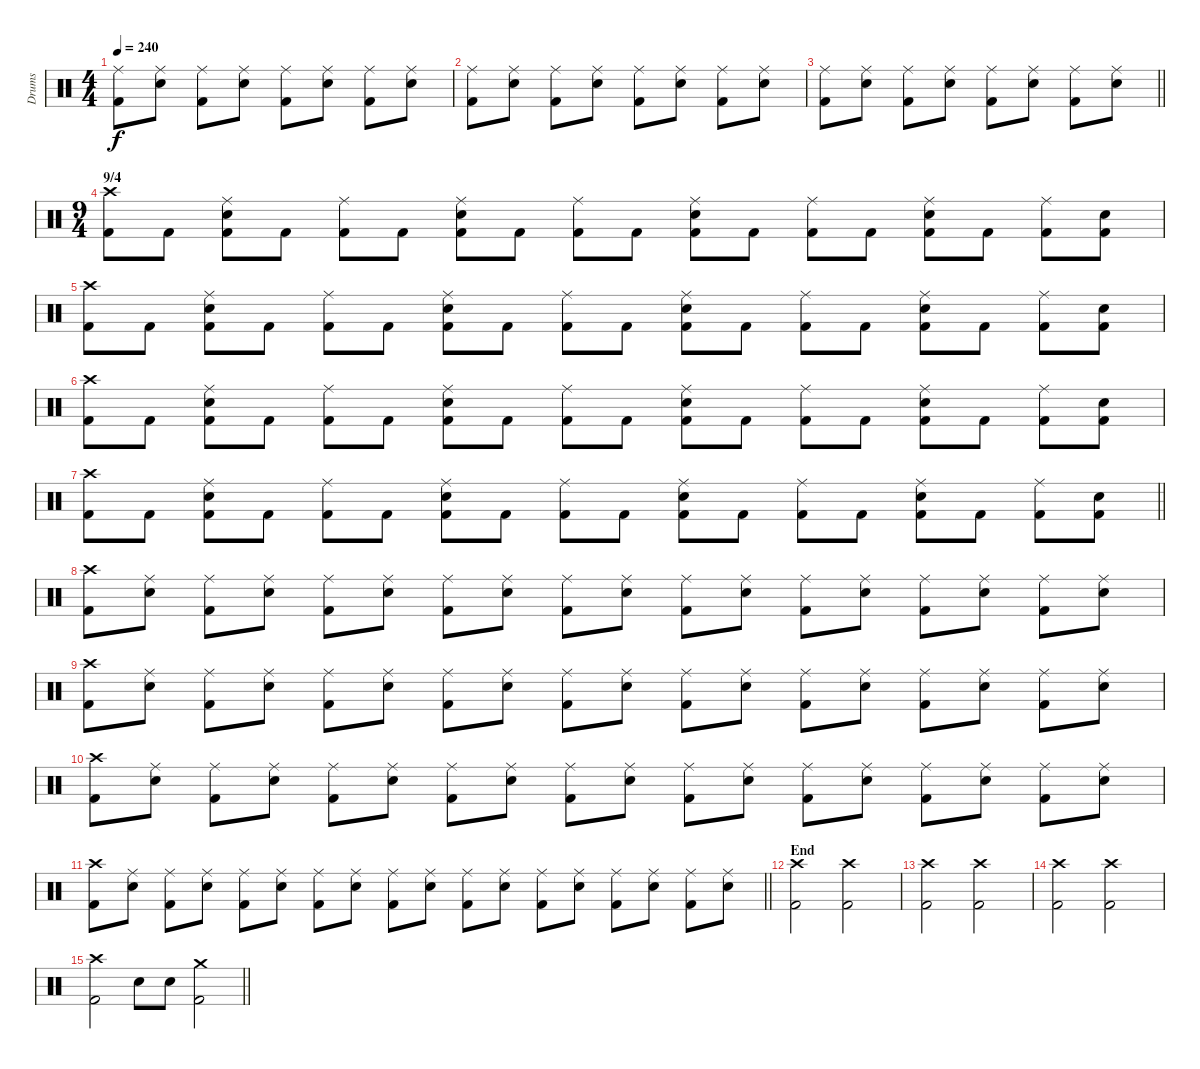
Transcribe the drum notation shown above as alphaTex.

\track ("Drums" "Drums") {instrument percussion}
\staff {score}
\articulation defaults
\ts (4 4)
\tempo 240
\clef neutral
\ks c
("Ride (middle)" "Kick (hit) 2").8{dy f} ("Ride (middle)" "Snare (hit) 2").8 ("Ride (middle)" "Kick (hit) 2").8 ("Ride (middle)" "Snare (hit) 2").8 ("Ride (middle)" "Kick (hit) 2").8 ("Ride (middle)" "Snare (hit) 2").8 ("Ride (middle)" "Kick (hit) 2").8 ("Ride (middle)" "Snare (hit) 2").8 |
("Ride (middle)" "Kick (hit) 2").8 ("Ride (middle)" "Snare (hit) 2").8 ("Ride (middle)" "Kick (hit) 2").8 ("Ride (middle)" "Snare (hit) 2").8 ("Ride (middle)" "Kick (hit) 2").8 ("Ride (middle)" "Snare (hit) 2").8 ("Ride (middle)" "Kick (hit) 2").8 ("Ride (middle)" "Snare (hit) 2").8 |
\barLineRight lightlight
("Ride (middle)" "Kick (hit) 2").8 ("Ride (middle)" "Snare (hit) 2").8 ("Ride (middle)" "Kick (hit) 2").8 ("Ride (middle)" "Snare (hit) 2").8 ("Ride (middle)" "Kick (hit) 2").8 ("Ride (middle)" "Snare (hit) 2").8 ("Ride (middle)" "Kick (hit) 2").8 ("Ride (middle)" "Snare (hit) 2").8 |
\ts (9 4)
\section ("" "9/4")
("Crash high (hit)" "Kick (hit) 2").8 "Kick (hit) 2".8 ("Ride (middle)" "Snare (hit) 2" "Kick (hit) 2").8 "Kick (hit) 2".8 ("Ride (middle)" "Kick (hit) 2").8 "Kick (hit) 2".8 ("Ride (middle)" "Snare (hit) 2" "Kick (hit) 2").8 "Kick (hit) 2".8 ("Ride (middle)" "Kick (hit) 2").8 "Kick (hit) 2".8 ("Ride (middle)" "Snare (hit) 2" "Kick (hit) 2").8 "Kick (hit) 2".8 ("Ride (middle)" "Kick (hit) 2").8 "Kick (hit) 2".8 ("Ride (middle)" "Snare (hit) 2" "Kick (hit) 2").8 "Kick (hit) 2".8 ("Ride (middle)" "Kick (hit) 2").8 ("Snare (hit) 2" "Kick (hit) 2").8 |
("Crash high (hit)" "Kick (hit) 2").8 "Kick (hit) 2".8 ("Ride (middle)" "Snare (hit) 2" "Kick (hit) 2").8 "Kick (hit) 2".8 ("Ride (middle)" "Kick (hit) 2").8 "Kick (hit) 2".8 ("Ride (middle)" "Snare (hit) 2" "Kick (hit) 2").8 "Kick (hit) 2".8 ("Ride (middle)" "Kick (hit) 2").8 "Kick (hit) 2".8 ("Ride (middle)" "Snare (hit) 2" "Kick (hit) 2").8 "Kick (hit) 2".8 ("Ride (middle)" "Kick (hit) 2").8 "Kick (hit) 2".8 ("Ride (middle)" "Snare (hit) 2" "Kick (hit) 2").8 "Kick (hit) 2".8 ("Ride (middle)" "Kick (hit) 2").8 ("Snare (hit) 2" "Kick (hit) 2").8 |
("Crash high (hit)" "Kick (hit) 2").8 "Kick (hit) 2".8 ("Ride (middle)" "Snare (hit) 2" "Kick (hit) 2").8 "Kick (hit) 2".8 ("Ride (middle)" "Kick (hit) 2").8 "Kick (hit) 2".8 ("Ride (middle)" "Snare (hit) 2" "Kick (hit) 2").8 "Kick (hit) 2".8 ("Ride (middle)" "Kick (hit) 2").8 "Kick (hit) 2".8 ("Ride (middle)" "Snare (hit) 2" "Kick (hit) 2").8 "Kick (hit) 2".8 ("Ride (middle)" "Kick (hit) 2").8 "Kick (hit) 2".8 ("Ride (middle)" "Snare (hit) 2" "Kick (hit) 2").8 "Kick (hit) 2".8 ("Ride (middle)" "Kick (hit) 2").8 ("Snare (hit) 2" "Kick (hit) 2").8 |
\barLineRight lightlight
("Crash high (hit)" "Kick (hit) 2").8 "Kick (hit) 2".8 ("Ride (middle)" "Snare (hit) 2" "Kick (hit) 2").8 "Kick (hit) 2".8 ("Ride (middle)" "Kick (hit) 2").8 "Kick (hit) 2".8 ("Ride (middle)" "Snare (hit) 2" "Kick (hit) 2").8 "Kick (hit) 2".8 ("Ride (middle)" "Kick (hit) 2").8 "Kick (hit) 2".8 ("Ride (middle)" "Snare (hit) 2" "Kick (hit) 2").8 "Kick (hit) 2".8 ("Ride (middle)" "Kick (hit) 2").8 "Kick (hit) 2".8 ("Ride (middle)" "Snare (hit) 2" "Kick (hit) 2").8 "Kick (hit) 2".8 ("Ride (middle)" "Kick (hit) 2").8 ("Snare (hit) 2" "Kick (hit) 2").8 |
\section ("" "")
("Crash high (hit)" "Kick (hit) 2").8 ("Ride (middle)" "Snare (hit) 2").8 ("Ride (middle)" "Kick (hit) 2").8 ("Ride (middle)" "Snare (hit) 2").8 ("Ride (middle)" "Kick (hit) 2").8 ("Ride (middle)" "Snare (hit) 2").8 ("Ride (middle)" "Kick (hit) 2").8 ("Ride (middle)" "Snare (hit) 2").8 ("Ride (middle)" "Kick (hit) 2").8 ("Ride (middle)" "Snare (hit) 2").8 ("Ride (middle)" "Kick (hit) 2").8 ("Ride (middle)" "Snare (hit) 2").8 ("Ride (middle)" "Kick (hit) 2").8 ("Ride (middle)" "Snare (hit) 2").8 ("Ride (middle)" "Kick (hit) 2").8 ("Ride (middle)" "Snare (hit) 2").8 ("Ride (middle)" "Kick (hit) 2").8 ("Ride (middle)" "Snare (hit) 2").8 |
("Crash high (hit)" "Kick (hit) 2").8 ("Ride (middle)" "Snare (hit) 2").8 ("Ride (middle)" "Kick (hit) 2").8 ("Ride (middle)" "Snare (hit) 2").8 ("Ride (middle)" "Kick (hit) 2").8 ("Ride (middle)" "Snare (hit) 2").8 ("Ride (middle)" "Kick (hit) 2").8 ("Ride (middle)" "Snare (hit) 2").8 ("Ride (middle)" "Kick (hit) 2").8 ("Ride (middle)" "Snare (hit) 2").8 ("Ride (middle)" "Kick (hit) 2").8 ("Ride (middle)" "Snare (hit) 2").8 ("Ride (middle)" "Kick (hit) 2").8 ("Ride (middle)" "Snare (hit) 2").8 ("Ride (middle)" "Kick (hit) 2").8 ("Ride (middle)" "Snare (hit) 2").8 ("Ride (middle)" "Kick (hit) 2").8 ("Ride (middle)" "Snare (hit) 2").8 |
("Crash high (hit)" "Kick (hit) 2").8 ("Ride (middle)" "Snare (hit) 2").8 ("Ride (middle)" "Kick (hit) 2").8 ("Ride (middle)" "Snare (hit) 2").8 ("Ride (middle)" "Kick (hit) 2").8 ("Ride (middle)" "Snare (hit) 2").8 ("Ride (middle)" "Kick (hit) 2").8 ("Ride (middle)" "Snare (hit) 2").8 ("Ride (middle)" "Kick (hit) 2").8 ("Ride (middle)" "Snare (hit) 2").8 ("Ride (middle)" "Kick (hit) 2").8 ("Ride (middle)" "Snare (hit) 2").8 ("Ride (middle)" "Kick (hit) 2").8 ("Ride (middle)" "Snare (hit) 2").8 ("Ride (middle)" "Kick (hit) 2").8 ("Ride (middle)" "Snare (hit) 2").8 ("Ride (middle)" "Kick (hit) 2").8 ("Ride (middle)" "Snare (hit) 2").8 |
\barLineRight lightlight
("Crash high (hit)" "Kick (hit) 2").8 ("Ride (middle)" "Snare (hit) 2").8 ("Ride (middle)" "Kick (hit) 2").8 ("Ride (middle)" "Snare (hit) 2").8 ("Ride (middle)" "Kick (hit) 2").8 ("Ride (middle)" "Snare (hit) 2").8 ("Ride (middle)" "Kick (hit) 2").8 ("Ride (middle)" "Snare (hit) 2").8 ("Ride (middle)" "Kick (hit) 2").8 ("Ride (middle)" "Snare (hit) 2").8 ("Ride (middle)" "Kick (hit) 2").8 ("Ride (middle)" "Snare (hit) 2").8 ("Ride (middle)" "Kick (hit) 2").8 ("Ride (middle)" "Snare (hit) 2").8 ("Ride (middle)" "Kick (hit) 2").8 ("Ride (middle)" "Snare (hit) 2").8 ("Ride (middle)" "Kick (hit) 2").8 ("Ride (middle)" "Snare (hit) 2").8 |
\section ("" "End")
("Crash high (hit)" "Kick (hit) 2").2 ("Crash high (hit)" "Kick (hit) 2").2 |
("Crash high (hit)" "Kick (hit) 2").2 ("Crash high (hit)" "Kick (hit) 2").2 |
("Crash high (hit)" "Kick (hit) 2").2 ("Crash high (hit)" "Kick (hit) 2").2 |
\barLineRight lightlight
("Crash high (hit)" "Kick (hit) 2").2 "Snare (hit) 2".8 "Snare (hit) 2".8 ("Crash medium (hit)" "Kick (hit) 2").2
